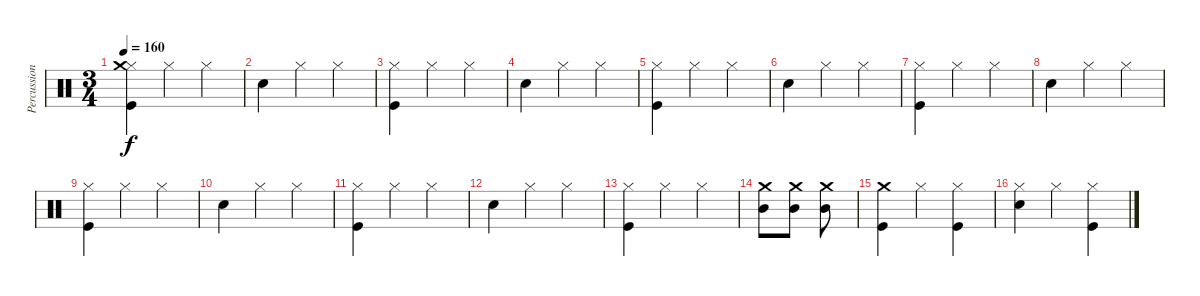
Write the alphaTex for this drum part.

\track ("Percussion" "Percussion") {instrument percussion}
\staff {score}
\articulation defaults
\ts (3 4)
\tempo 160
\clef neutral
\ks c
("Hi-Hat (closed)" "Crash medium (hit)" "Kick (hit)").4{dy f} "Hi-Hat (closed)".4 "Hi-Hat (closed)".4 |
"Snare (hit) 2".4 "Hi-Hat (closed)".4 "Hi-Hat (closed)".4 |
("Hi-Hat (closed)" "Kick (hit)").4 "Hi-Hat (closed)".4 "Hi-Hat (closed)".4 |
"Snare (hit) 2".4 "Hi-Hat (closed)".4 "Hi-Hat (closed)".4 |
("Hi-Hat (closed)" "Kick (hit)").4 "Hi-Hat (closed)".4 "Hi-Hat (closed)".4 |
"Snare (hit) 2".4 "Hi-Hat (closed)".4 "Hi-Hat (closed)".4 |
("Hi-Hat (closed)" "Kick (hit)").4 "Hi-Hat (closed)".4 "Hi-Hat (closed)".4 |
"Snare (hit) 2".4 "Hi-Hat (closed)".4 "Hi-Hat (closed)".4 |
("Hi-Hat (closed)" "Kick (hit)").4 "Hi-Hat (closed)".4 "Hi-Hat (closed)".4 |
"Snare (hit) 2".4 "Hi-Hat (closed)".4 "Hi-Hat (closed)".4 |
("Hi-Hat (closed)" "Kick (hit)").4 "Hi-Hat (closed)".4 "Hi-Hat (closed)".4 |
"Snare (hit) 2".4 "Hi-Hat (closed)".4 "Hi-Hat (closed)".4 |
("Hi-Hat (closed)" "Kick (hit)").4 "Hi-Hat (closed)".4 "Hi-Hat (closed)".4 |
("Crash medium (hit)" "Mid Tom (hit)").8 ("Crash medium (hit)" "Mid Tom (hit)").8 ("Crash medium (hit)" "Mid Tom (hit)").8 |
("Crash medium (hit)" "Kick (hit)").4 "Hi-Hat (closed)".4 ("Hi-Hat (closed)" "Kick (hit)").4 |
("Hi-Hat (closed)" "Snare (hit) 2").4 "Hi-Hat (closed)".4 ("Hi-Hat (closed)" "Kick (hit)").4
